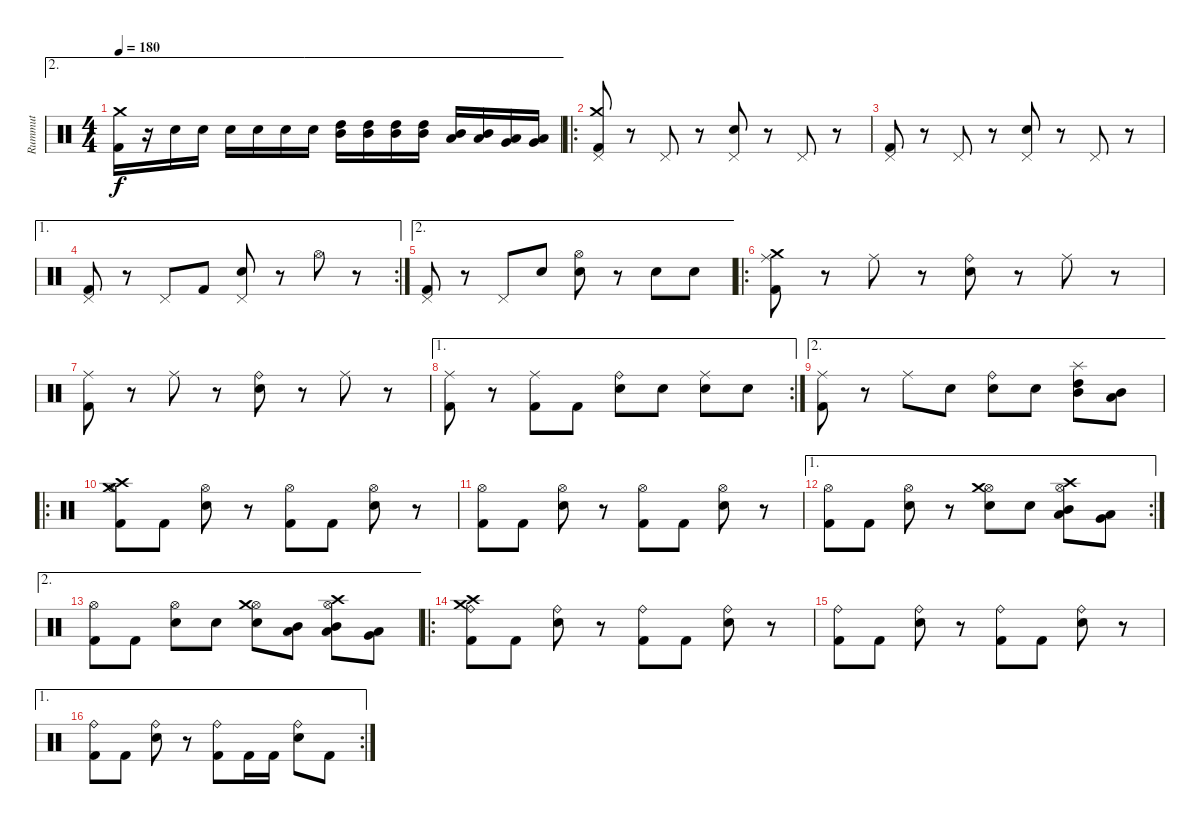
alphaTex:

\track ("Rummut" "Rummut") {instrument percussion}
\staff {score}
\articulation defaults
\ae 2
\ts (4 4)
\tempo 180
\clef neutral
\ks c
("Kick (hit) 2" "Crash medium (hit)").16{dy f} r.16 "Snare (hit) 2".16 "Snare (hit) 2".16 "Snare (hit) 2".16 "Snare (hit) 2".16 "Snare (hit) 2".16 "Snare (hit) 2".16 ("High Tom (hit)" "Mid Tom (hit)").16 ("High Tom (hit)" "Mid Tom (hit)").16 ("High Tom (hit)" "Mid Tom (hit)").16 ("High Tom (hit)" "Mid Tom (hit)").16 ("Mid Tom (hit)" "Low Tom (hit)").16 ("Mid Tom (hit)" "Low Tom (hit)").16 ("Low Tom (hit)" "Very Low Tom (hit)").16 ("Low Tom (hit)" "Very Low Tom (hit)").16 |
\ro
("Kick (hit) 2" "Pedal Hi-Hat (hit)" "Crash medium (hit)").8 r.8 "Pedal Hi-Hat (hit)".8 r.8 ("Snare (hit) 2" "Pedal Hi-Hat (hit)").8 r.8 "Pedal Hi-Hat (hit)".8 r.8 |
("Kick (hit) 2" "Pedal Hi-Hat (hit)").8 r.8 "Pedal Hi-Hat (hit)".8 r.8 ("Snare (hit) 2" "Pedal Hi-Hat (hit)").8 r.8 "Pedal Hi-Hat (hit)".8 r.8 |
\ae 1
\rc 2
("Kick (hit) 2" "Pedal Hi-Hat (hit)").8 r.8 "Pedal Hi-Hat (hit)".8 "Kick (hit) 2".8 ("Snare (hit) 2" "Pedal Hi-Hat (hit)").8 r.8 "Hi-Hat (open)".8 r.8 |
\ae 2
("Kick (hit) 2" "Pedal Hi-Hat (hit)").8 r.8 "Pedal Hi-Hat (hit)".8 "Snare (hit) 2".8 ("Snare (hit) 2" "Hi-Hat (open)").8 r.8 "Snare (hit) 2".8 "Snare (hit) 2".8 |
\ro
("Kick (hit) 2" "Ride (middle)" "Crash medium (hit)").8 r.8 "Ride (middle)".8 r.8 ("Snare (hit) 2" "Ride (bell)").8 r.8 "Ride (middle)".8 r.8 |
("Kick (hit) 2" "Ride (middle)").8 r.8 "Ride (middle)".8 r.8 ("Snare (hit) 2" "Ride (bell)").8 r.8 "Ride (middle)".8 r.8 |
\ae 1
\rc 2
("Kick (hit) 2" "Ride (middle)").8 r.8 ("Kick (hit) 2" "Ride (middle)").8 "Kick (hit) 2".8 ("Snare (hit) 2" "Ride (bell)").8 "Snare (hit) 2".8 ("Snare (hit) 2" "Ride (middle)").8 "Snare (hit) 2".8 |
\ae 2
("Kick (hit) 2" "Ride (middle)").8 r.8 "Ride (middle)".8 "Snare (hit) 2".8 ("Snare (hit) 2" "Ride (bell)").8 "Snare (hit) 2".8 ("High Tom (hit)" "Mid Tom (hit)" "Splash (hit)").8 ("Mid Tom (hit)" "Low Tom (hit)").8 |
\ro
("Kick (hit) 2" "Hi-Hat (open)" "Crash high (hit)" "Crash medium (hit)").8 "Kick (hit) 2".8 ("Snare (hit) 2" "Hi-Hat (open)").8 r.8 ("Kick (hit) 2" "Hi-Hat (open)").8 "Kick (hit) 2".8 ("Snare (hit) 2" "Hi-Hat (open)").8 r.8 |
("Kick (hit) 2" "Hi-Hat (open)").8 "Kick (hit) 2".8 ("Snare (hit) 2" "Hi-Hat (open)").8 r.8 ("Kick (hit) 2" "Hi-Hat (open)").8 "Kick (hit) 2".8 ("Snare (hit) 2" "Hi-Hat (open)").8 r.8 |
\ae 1
\rc 2
("Kick (hit) 2" "Hi-Hat (open)").8 "Kick (hit) 2".8 ("Snare (hit) 2" "Hi-Hat (open)").8 r.8 ("Snare (hit) 2" "Hi-Hat (open)" "Crash medium (hit)").8 "Snare (hit) 2".8 ("Mid Tom (hit)" "Low Tom (hit)" "Hi-Hat (open)" "Crash high (hit)").8 ("Low Tom (hit)" "Very Low Tom (hit)").8 |
\ae 2
("Kick (hit) 2" "Hi-Hat (open)").8 "Kick (hit) 2".8 ("Snare (hit) 2" "Hi-Hat (open)").8 "Snare (hit) 2".8 ("Snare (hit) 2" "Hi-Hat (open)" "Crash medium (hit)").8 ("Low Tom (hit)" "Mid Tom (hit)").8 ("Low Tom (hit)" "Mid Tom (hit)" "Hi-Hat (open)" "Crash high (hit)").8 ("Very Low Tom (hit)" "Low Tom (hit)").8 |
\ro
("Kick (hit) 2" "Ride (bell)" "Crash high (hit)" "Crash medium (hit)").8 "Kick (hit) 2".8 ("Snare (hit) 2" "Ride (bell)").8 r.8 ("Kick (hit) 2" "Ride (bell)").8 "Kick (hit) 2".8 ("Snare (hit) 2" "Ride (bell)").8 r.8 |
("Kick (hit) 2" "Ride (bell)").8 "Kick (hit) 2".8 ("Snare (hit) 2" "Ride (bell)").8 r.8 ("Kick (hit) 2" "Ride (bell)").8 "Kick (hit) 2".8 ("Snare (hit) 2" "Ride (bell)").8 r.8 |
\ae 1
\rc 2
("Kick (hit) 2" "Ride (bell)").8 "Kick (hit) 2".8 ("Snare (hit) 2" "Ride (bell)").8 r.8 ("Kick (hit) 2" "Ride (bell)").8 "Kick (hit) 2".16 "Kick (hit) 2".16 ("Snare (hit) 2" "Ride (bell)").8 "Kick (hit) 2".8
